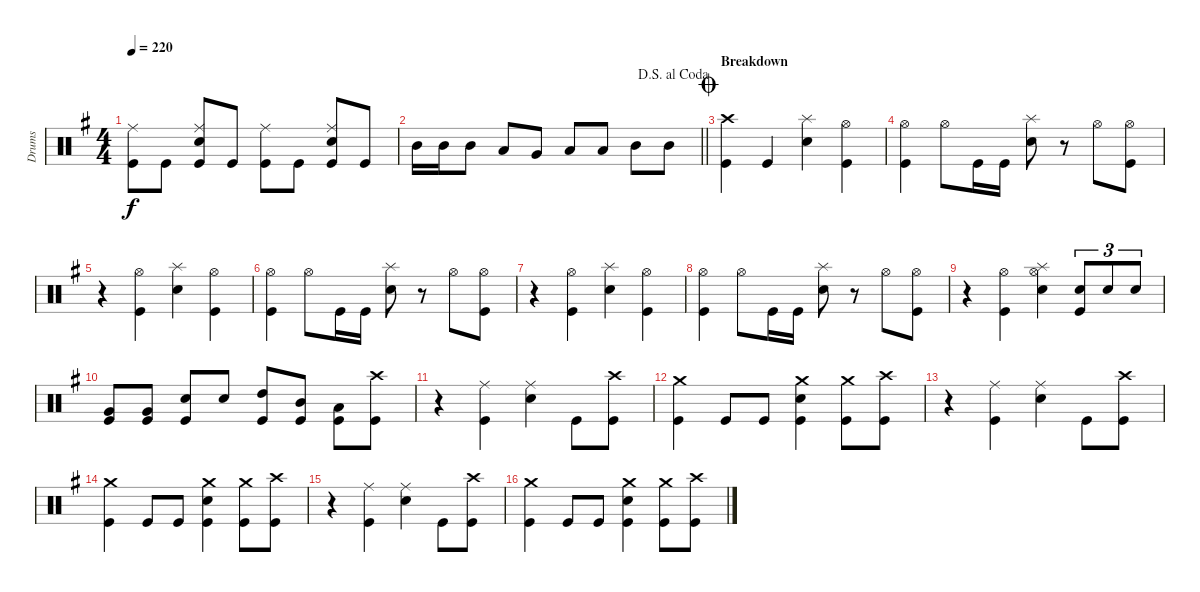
\track ("Drums" "Drums") {instrument percussion}
\staff {score}
\articulation defaults
\ts (4 4)
\tempo 220
\clef neutral
\ks eminor
("Kick (hit)" "Ride (middle)").8{dy f} "Kick (hit)".8 ("Kick (hit)" "Snare (hit) 2" "Ride (middle)").8 "Kick (hit)".8 ("Kick (hit)" "Ride (middle)").8 "Kick (hit)".8 ("Kick (hit)" "Snare (hit) 2" "Ride (middle)").8 "Kick (hit)".8 |
\jump dalsegnoalcoda
\barLineRight lightlight "Mid Tom (hit)".16 "Mid Tom (hit)".16 "Mid Tom (hit)".8 "Low Tom (hit)".8 "Very Low Tom (hit)".8 "Low Tom (hit)".8 "Low Tom (hit)".8 "Mid Tom (hit)".8 "Mid Tom (hit)".8
|
\section ("" "Breakdown")
\jump coda
("Kick (hit)" "Crash high (hit)").4 "Kick (hit)".4 ("Snare (hit) 2" "Splash (hit)").4 ("Kick (hit)" "Hi-Hat (open)").4 |
("Kick (hit)" "Hi-Hat (open)").4 "Hi-Hat (open)".8 "Kick (hit)".16 "Kick (hit)".16 ("Snare (hit) 2" "Splash (hit)").8 r.8 "Hi-Hat (open)".8 ("Hi-Hat (open)" "Kick (hit)").8 |
r.4 ("Kick (hit)" "Hi-Hat (open)").4 ("Snare (hit) 2" "Splash (hit)").4 ("Kick (hit)" "Hi-Hat (open)").4 |
("Kick (hit)" "Hi-Hat (open)").4 "Hi-Hat (open)".8 "Kick (hit)".16 "Kick (hit)".16 ("Snare (hit) 2" "Splash (hit)").8 r.8 "Hi-Hat (open)".8 ("Hi-Hat (open)" "Kick (hit)").8 |
r.4 ("Kick (hit)" "Hi-Hat (open)").4 ("Snare (hit) 2" "Splash (hit)").4 ("Kick (hit)" "Hi-Hat (open)").4 |
("Kick (hit)" "Hi-Hat (open)").4 "Hi-Hat (open)".8 "Kick (hit)".16 "Kick (hit)".16 ("Snare (hit) 2" "Splash (hit)").8 r.8 "Hi-Hat (open)".8 ("Hi-Hat (open)" "Kick (hit)").8 |
r.4 ("Kick (hit)" "Hi-Hat (open)").4 ("Splash (hit)" "Hi-Hat (open)" "Snare (hit) 2").4 ("Kick (hit)" "Snare (hit) 2").8{tu (3 2)} "Snare (hit) 2".8{tu (3 2)} "Snare (hit) 2".8{tu (3 2)} |
("Kick (hit)" "Very Low Tom (hit)").8 ("Kick (hit)" "Very Low Tom (hit)").8 ("Kick (hit)" "Snare (hit) 2").8 "Snare (hit) 2".8 ("Kick (hit)" "High Tom (hit)").8 ("Kick (hit)" "Mid Tom (hit)").8 ("Kick (hit)" "Low Tom (hit)").8 ("Kick (hit)" "Crash high (hit)").8 |
r.4 ("Kick (hit)" "Ride (middle)").4 ("Snare (hit) 2" "Ride (middle)").4 "Kick (hit)".8 ("Kick (hit)" "Crash high (hit)").8 |
("Kick (hit)" "Crash medium (hit)").4 "Kick (hit)".8 "Kick (hit)".8 ("Kick (hit)" "Crash medium (hit)" "Snare (hit) 2").4 ("Kick (hit)" "Crash medium (hit)").8 ("Kick (hit)" "Crash high (hit)").8 |
r.4 ("Kick (hit)" "Ride (middle)").4 ("Snare (hit) 2" "Ride (middle)").4 "Kick (hit)".8 ("Kick (hit)" "Crash high (hit)").8 |
("Kick (hit)" "Crash medium (hit)").4 "Kick (hit)".8 "Kick (hit)".8 ("Kick (hit)" "Crash medium (hit)" "Snare (hit) 2").4 ("Kick (hit)" "Crash medium (hit)").8 ("Kick (hit)" "Crash high (hit)").8 |
r.4 ("Kick (hit)" "Ride (middle)").4 ("Snare (hit) 2" "Ride (middle)").4 "Kick (hit)".8 ("Kick (hit)" "Crash high (hit)").8 |
("Kick (hit)" "Crash medium (hit)").4 "Kick (hit)".8 "Kick (hit)".8 ("Kick (hit)" "Crash medium (hit)" "Snare (hit) 2").4 ("Kick (hit)" "Crash medium (hit)").8 ("Kick (hit)" "Crash high (hit)").8
